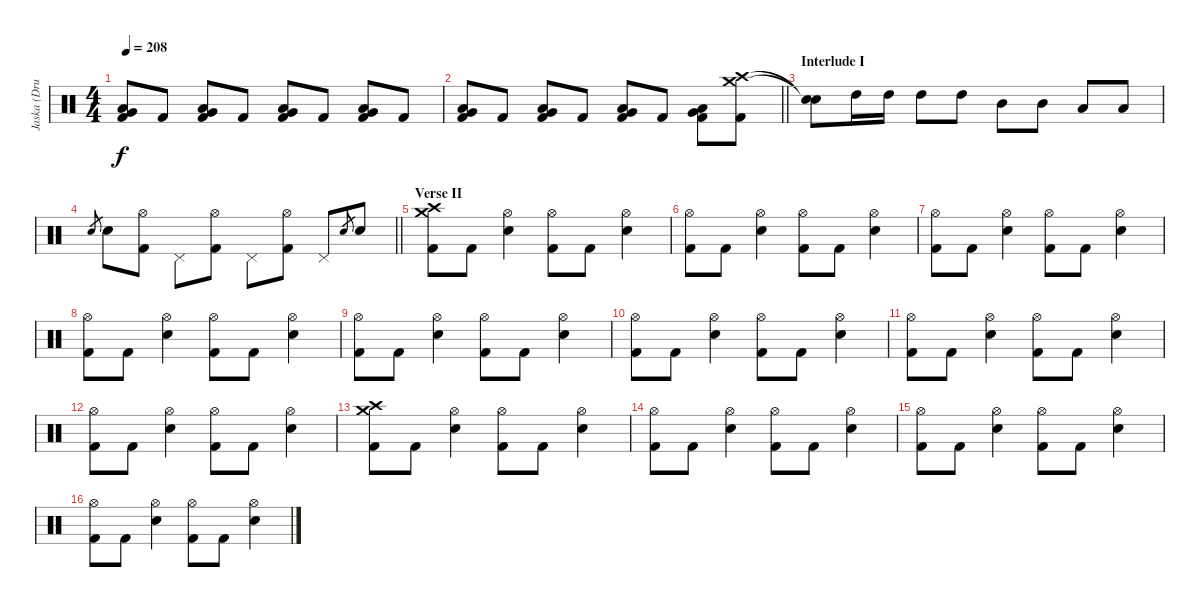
\track ("Jaska (Drums)" "Jaska (Dru") {instrument percussion}
\staff {score}
\articulation defaults
\ts (4 4)
\tempo 208
\clef neutral
\ks c
("Very Low Tom (hit)" "Low Floor Tom (hit)" "Kick (hit) 2").8{dy f} "Kick (hit) 2".8 ("Very Low Tom (hit)" "Low Floor Tom (hit)" "Kick (hit) 2").8 "Kick (hit) 2".8 ("Very Low Tom (hit)" "Low Floor Tom (hit)" "Kick (hit) 2").8 "Kick (hit) 2".8 ("Very Low Tom (hit)" "Low Floor Tom (hit)" "Kick (hit) 2").8 "Kick (hit) 2".8 |
\barLineRight lightlight
("Very Low Tom (hit)" "Low Floor Tom (hit)" "Kick (hit) 2").8 "Kick (hit) 2".8 ("Very Low Tom (hit)" "Low Floor Tom (hit)" "Kick (hit) 2").8 "Kick (hit) 2".8 ("Very Low Tom (hit)" "Low Floor Tom (hit)" "Kick (hit) 2").8 "Kick (hit) 2".8 ("Very Low Tom (hit)" "Low Floor Tom (hit)" "Kick (hit) 2").8 ("Crash medium (hit)" "Crash high (hit)" "Kick (hit) 2").8 |
\section ("" "Interlude I")
("Snare (hit)"{t} "Snare (hit)"{t}).8 "High Tom (hit)".16 "High Tom (hit)".16 "High Tom (hit)".8 "High Tom (hit)".8 "Mid Tom (hit)".8 "Mid Tom (hit)".8 "Low Tom (hit)".8 "Low Tom (hit)".8 |
\barLineRight lightlight "Electric Snare (hit)".8{gr} "Electric Snare (hit)".8
("Hi-Hat (open)" "Kick (hit) 2").8 "Pedal Hi-Hat (hit)".8 ("Hi-Hat (open)" "Kick (hit) 2").8 "Pedal Hi-Hat (hit)".8 ("Hi-Hat (open)" "Kick (hit) 2").8 "Pedal Hi-Hat (hit)".8 "Electric Snare (hit)".8{gr} "Electric Snare (hit)".8 |
\section ("" "Verse II")
("Crash medium (hit)" "Crash high (hit)" "Kick (hit) 2").8 "Kick (hit) 2".8 ("Hi-Hat (open)" "Electric Snare (hit)").4 ("Hi-Hat (open)" "Kick (hit) 2").8 "Kick (hit) 2".8 ("Hi-Hat (open)" "Electric Snare (hit)").4 |
("Hi-Hat (open)" "Kick (hit) 2").8 "Kick (hit) 2".8 ("Hi-Hat (open)" "Electric Snare (hit)").4 ("Hi-Hat (open)" "Kick (hit) 2").8 "Kick (hit) 2".8 ("Hi-Hat (open)" "Electric Snare (hit)").4 |
("Hi-Hat (open)" "Kick (hit) 2").8 "Kick (hit) 2".8 ("Hi-Hat (open)" "Electric Snare (hit)").4 ("Hi-Hat (open)" "Kick (hit) 2").8 "Kick (hit) 2".8 ("Hi-Hat (open)" "Electric Snare (hit)").4 |
("Hi-Hat (open)" "Kick (hit) 2").8 "Kick (hit) 2".8 ("Hi-Hat (open)" "Electric Snare (hit)").4 ("Hi-Hat (open)" "Kick (hit) 2").8 "Kick (hit) 2".8 ("Hi-Hat (open)" "Electric Snare (hit)").4 |
("Hi-Hat (open)" "Kick (hit) 2").8 "Kick (hit) 2".8 ("Hi-Hat (open)" "Electric Snare (hit)").4 ("Hi-Hat (open)" "Kick (hit) 2").8 "Kick (hit) 2".8 ("Hi-Hat (open)" "Electric Snare (hit)").4 |
("Hi-Hat (open)" "Kick (hit) 2").8 "Kick (hit) 2".8 ("Hi-Hat (open)" "Electric Snare (hit)").4 ("Hi-Hat (open)" "Kick (hit) 2").8 "Kick (hit) 2".8 ("Hi-Hat (open)" "Electric Snare (hit)").4 |
("Hi-Hat (open)" "Kick (hit) 2").8 "Kick (hit) 2".8 ("Hi-Hat (open)" "Electric Snare (hit)").4 ("Hi-Hat (open)" "Kick (hit) 2").8 "Kick (hit) 2".8 ("Hi-Hat (open)" "Electric Snare (hit)").4 |
("Hi-Hat (open)" "Kick (hit) 2").8 "Kick (hit) 2".8 ("Hi-Hat (open)" "Electric Snare (hit)").4 ("Hi-Hat (open)" "Kick (hit) 2").8 "Kick (hit) 2".8 ("Hi-Hat (open)" "Electric Snare (hit)").4 |
("Crash medium (hit)" "Crash high (hit)" "Kick (hit) 2").8 "Kick (hit) 2".8 ("Hi-Hat (open)" "Electric Snare (hit)").4 ("Hi-Hat (open)" "Kick (hit) 2").8 "Kick (hit) 2".8 ("Hi-Hat (open)" "Electric Snare (hit)").4 |
("Hi-Hat (open)" "Kick (hit) 2").8 "Kick (hit) 2".8 ("Hi-Hat (open)" "Electric Snare (hit)").4 ("Hi-Hat (open)" "Kick (hit) 2").8 "Kick (hit) 2".8 ("Hi-Hat (open)" "Electric Snare (hit)").4 |
("Hi-Hat (open)" "Kick (hit) 2").8 "Kick (hit) 2".8 ("Hi-Hat (open)" "Electric Snare (hit)").4 ("Hi-Hat (open)" "Kick (hit) 2").8 "Kick (hit) 2".8 ("Hi-Hat (open)" "Electric Snare (hit)").4 |
("Hi-Hat (open)" "Kick (hit) 2").8 "Kick (hit) 2".8 ("Hi-Hat (open)" "Electric Snare (hit)").4 ("Hi-Hat (open)" "Kick (hit) 2").8 "Kick (hit) 2".8 ("Hi-Hat (open)" "Electric Snare (hit)").4
